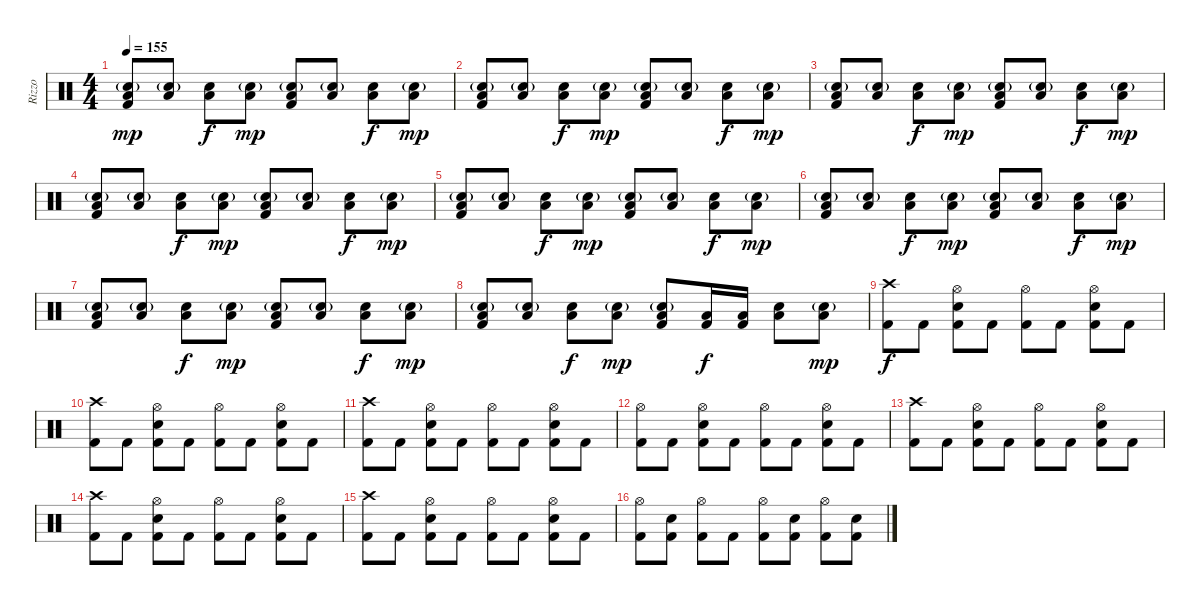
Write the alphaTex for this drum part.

\track ("Rizzo" "Rizzo") {instrument percussion}
\staff {score}
\articulation defaults
\ts (4 4)
\tempo 155
\clef neutral
\ks c
("Low Tom (hit)" "Electric Snare (hit)"{g} "Kick (hit) 2").8{dy mp} ("Low Tom (hit)" "Electric Snare (hit)"{g}).8 ("Low Tom (hit)" "Electric Snare (hit)").8{dy f} ("Low Tom (hit)" "Electric Snare (hit)"{g}).8{dy mp} ("Low Tom (hit)" "Electric Snare (hit)"{g} "Kick (hit) 2").8 ("Low Tom (hit)" "Electric Snare (hit)"{g}).8 ("Low Tom (hit)" "Electric Snare (hit)").8{dy f} ("Low Tom (hit)" "Electric Snare (hit)"{g}).8{dy mp} |
("Low Tom (hit)" "Electric Snare (hit)"{g} "Kick (hit) 2").8 ("Low Tom (hit)" "Electric Snare (hit)"{g}).8 ("Low Tom (hit)" "Electric Snare (hit)").8{dy f} ("Low Tom (hit)" "Electric Snare (hit)"{g}).8{dy mp} ("Low Tom (hit)" "Electric Snare (hit)"{g} "Kick (hit) 2").8 ("Low Tom (hit)" "Electric Snare (hit)"{g}).8 ("Low Tom (hit)" "Electric Snare (hit)").8{dy f} ("Low Tom (hit)" "Electric Snare (hit)"{g}).8{dy mp} |
("Low Tom (hit)" "Electric Snare (hit)"{g} "Kick (hit) 2").8 ("Low Tom (hit)" "Electric Snare (hit)"{g}).8 ("Low Tom (hit)" "Electric Snare (hit)").8{dy f} ("Low Tom (hit)" "Electric Snare (hit)"{g}).8{dy mp} ("Low Tom (hit)" "Electric Snare (hit)"{g} "Kick (hit) 2").8 ("Low Tom (hit)" "Electric Snare (hit)"{g}).8 ("Low Tom (hit)" "Electric Snare (hit)").8{dy f} ("Low Tom (hit)" "Electric Snare (hit)"{g}).8{dy mp} |
("Low Tom (hit)" "Electric Snare (hit)"{g} "Kick (hit) 2").8 ("Low Tom (hit)" "Electric Snare (hit)"{g}).8 ("Low Tom (hit)" "Electric Snare (hit)").8{dy f} ("Low Tom (hit)" "Electric Snare (hit)"{g}).8{dy mp} ("Low Tom (hit)" "Electric Snare (hit)"{g} "Kick (hit) 2").8 ("Low Tom (hit)" "Electric Snare (hit)"{g}).8 ("Low Tom (hit)" "Electric Snare (hit)").8{dy f} ("Low Tom (hit)" "Electric Snare (hit)"{g}).8{dy mp} |
("Low Tom (hit)" "Electric Snare (hit)"{g} "Kick (hit) 2").8 ("Low Tom (hit)" "Electric Snare (hit)"{g}).8 ("Low Tom (hit)" "Electric Snare (hit)").8{dy f} ("Low Tom (hit)" "Electric Snare (hit)"{g}).8{dy mp} ("Low Tom (hit)" "Electric Snare (hit)"{g} "Kick (hit) 2").8 ("Low Tom (hit)" "Electric Snare (hit)"{g}).8 ("Low Tom (hit)" "Electric Snare (hit)").8{dy f} ("Low Tom (hit)" "Electric Snare (hit)"{g}).8{dy mp} |
("Low Tom (hit)" "Electric Snare (hit)"{g} "Kick (hit) 2").8 ("Low Tom (hit)" "Electric Snare (hit)"{g}).8 ("Low Tom (hit)" "Electric Snare (hit)").8{dy f} ("Low Tom (hit)" "Electric Snare (hit)"{g}).8{dy mp} ("Low Tom (hit)" "Electric Snare (hit)"{g} "Kick (hit) 2").8 ("Low Tom (hit)" "Electric Snare (hit)"{g}).8 ("Low Tom (hit)" "Electric Snare (hit)").8{dy f} ("Low Tom (hit)" "Electric Snare (hit)"{g}).8{dy mp} |
("Low Tom (hit)" "Electric Snare (hit)"{g} "Kick (hit) 2").8 ("Low Tom (hit)" "Electric Snare (hit)"{g}).8 ("Low Tom (hit)" "Electric Snare (hit)").8{dy f} ("Low Tom (hit)" "Electric Snare (hit)"{g}).8{dy mp} ("Low Tom (hit)" "Electric Snare (hit)"{g} "Kick (hit) 2").8 ("Low Tom (hit)" "Electric Snare (hit)"{g}).8 ("Low Tom (hit)" "Electric Snare (hit)").8{dy f} ("Low Tom (hit)" "Electric Snare (hit)"{g}).8{dy mp} |
("Low Tom (hit)" "Electric Snare (hit)"{g} "Kick (hit) 2").8 ("Low Tom (hit)" "Electric Snare (hit)"{g}).8 ("Low Tom (hit)" "Electric Snare (hit)").8{dy f} ("Low Tom (hit)" "Electric Snare (hit)"{g}).8{dy mp} ("Low Tom (hit)" "Electric Snare (hit)"{g} "Kick (hit) 2").8 ("Low Tom (hit)" "Kick (hit) 2").16{dy f} ("Low Tom (hit)" "Kick (hit) 2").16 ("Low Tom (hit)" "Electric Snare (hit)").8 ("Low Tom (hit)" "Electric Snare (hit)"{g}).8{dy mp} |
("Crash high (hit)" "Kick (hit) 2").8{dy f} "Kick (hit) 2".8 ("Hi-Hat (open)" "Electric Snare (hit)" "Kick (hit) 2").8 "Kick (hit) 2".8 ("Hi-Hat (open)" "Kick (hit) 2").8 "Kick (hit) 2".8 ("Hi-Hat (open)" "Electric Snare (hit)" "Kick (hit) 2").8 "Kick (hit) 2".8 |
("Crash high (hit)" "Kick (hit) 2").8 "Kick (hit) 2".8 ("Hi-Hat (open)" "Electric Snare (hit)" "Kick (hit) 2").8 "Kick (hit) 2".8 ("Hi-Hat (open)" "Kick (hit) 2").8 "Kick (hit) 2".8 ("Hi-Hat (open)" "Electric Snare (hit)" "Kick (hit) 2").8 "Kick (hit) 2".8 |
("Crash high (hit)" "Kick (hit) 2").8 "Kick (hit) 2".8 ("Hi-Hat (open)" "Electric Snare (hit)" "Kick (hit) 2").8 "Kick (hit) 2".8 ("Hi-Hat (open)" "Kick (hit) 2").8 "Kick (hit) 2".8 ("Hi-Hat (open)" "Electric Snare (hit)" "Kick (hit) 2").8 "Kick (hit) 2".8 |
("Hi-Hat (open)" "Kick (hit) 2").8 "Kick (hit) 2".8 ("Hi-Hat (open)" "Electric Snare (hit)" "Kick (hit) 2").8 "Kick (hit) 2".8 ("Hi-Hat (open)" "Kick (hit) 2").8 "Kick (hit) 2".8 ("Hi-Hat (open)" "Electric Snare (hit)" "Kick (hit) 2").8 "Kick (hit) 2".8 |
("Crash high (hit)" "Kick (hit) 2").8 "Kick (hit) 2".8 ("Hi-Hat (open)" "Electric Snare (hit)" "Kick (hit) 2").8 "Kick (hit) 2".8 ("Hi-Hat (open)" "Kick (hit) 2").8 "Kick (hit) 2".8 ("Hi-Hat (open)" "Electric Snare (hit)" "Kick (hit) 2").8 "Kick (hit) 2".8 |
("Crash high (hit)" "Kick (hit) 2").8 "Kick (hit) 2".8 ("Hi-Hat (open)" "Electric Snare (hit)" "Kick (hit) 2").8 "Kick (hit) 2".8 ("Hi-Hat (open)" "Kick (hit) 2").8 "Kick (hit) 2".8 ("Hi-Hat (open)" "Electric Snare (hit)" "Kick (hit) 2").8 "Kick (hit) 2".8 |
("Crash high (hit)" "Kick (hit) 2").8 "Kick (hit) 2".8 ("Hi-Hat (open)" "Electric Snare (hit)" "Kick (hit) 2").8 "Kick (hit) 2".8 ("Hi-Hat (open)" "Kick (hit) 2").8 "Kick (hit) 2".8 ("Hi-Hat (open)" "Electric Snare (hit)" "Kick (hit) 2").8 "Kick (hit) 2".8 |
("Hi-Hat (open)" "Kick (hit) 2").8 ("Electric Snare (hit)" "Kick (hit) 2").8 ("Hi-Hat (open)" "Kick (hit) 2").8 "Kick (hit) 2".8 ("Hi-Hat (open)" "Kick (hit) 2").8 ("Electric Snare (hit)" "Kick (hit) 2").8 ("Hi-Hat (open)" "Kick (hit) 2").8 ("Electric Snare (hit)" "Kick (hit) 2").8
